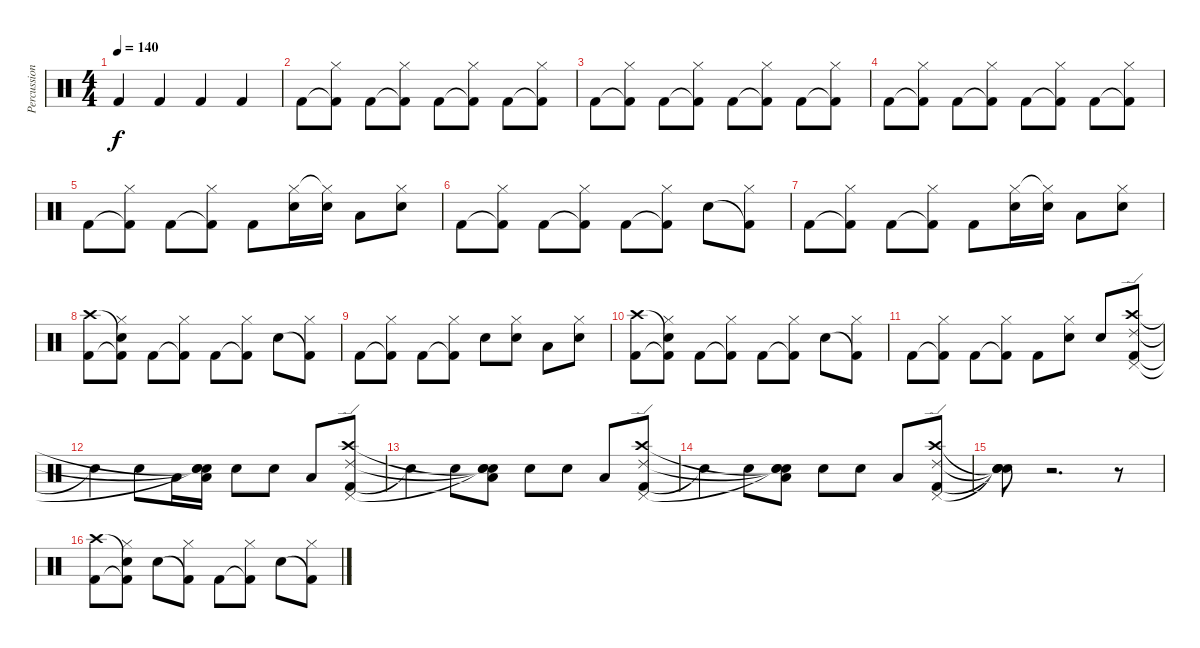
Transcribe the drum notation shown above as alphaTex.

\track ("Percussion" "Percussion") {instrument percussion}
\staff {score}
\articulation defaults
\ts (4 4)
\tempo 140
\clef neutral
\ks c "Kick (hit) 2".4{dy f} "Kick (hit) 2".4 "Kick (hit) 2".4 "Kick (hit) 2".4
|
"Kick (hit) 2".8 ("Kick (hit) 2"{t} "Hi-Hat (closed)").8 "Kick (hit) 2".8 ("Kick (hit) 2"{t} "Hi-Hat (closed)").8 "Kick (hit) 2".8 ("Kick (hit) 2"{t} "Hi-Hat (closed)").8 "Kick (hit) 2".8 ("Kick (hit) 2"{t} "Hi-Hat (closed)").8 |
"Kick (hit) 2".8 ("Kick (hit) 2"{t} "Hi-Hat (closed)").8 "Kick (hit) 2".8 ("Kick (hit) 2"{t} "Hi-Hat (closed)").8 "Kick (hit) 2".8 ("Kick (hit) 2"{t} "Hi-Hat (closed)").8 "Kick (hit) 2".8 ("Kick (hit) 2"{t} "Hi-Hat (closed)").8 |
"Kick (hit) 2".8 ("Kick (hit) 2"{t} "Hi-Hat (closed)").8 "Kick (hit) 2".8 ("Kick (hit) 2"{t} "Hi-Hat (closed)").8 "Kick (hit) 2".8 ("Kick (hit) 2"{t} "Hi-Hat (closed)").8 "Kick (hit) 2".8 ("Kick (hit) 2"{t} "Hi-Hat (closed)").8 |
"Kick (hit) 2".8 ("Kick (hit) 2"{t} "Hi-Hat (closed)").8 "Kick (hit) 2".8 ("Kick (hit) 2"{t} "Hi-Hat (closed)").8 "Kick (hit) 2".8 ("Snare (hit) 2" "Hi-Hat (closed)").16 ("Snare (hit) 2" "Hi-Hat (closed)"{t}).16 "Low Tom (hit)".8 ("Snare (hit) 2" "Hi-Hat (closed)").8 |
"Kick (hit) 2".8 ("Kick (hit) 2"{t} "Hi-Hat (closed)").8 "Kick (hit) 2".8 ("Kick (hit) 2"{t} "Hi-Hat (closed)").8 "Kick (hit) 2".8 ("Kick (hit) 2"{t} "Hi-Hat (closed)").8 "Snare (hit) 2".8 ("Kick (hit) 2"{t} "Hi-Hat (closed)").8 |
"Kick (hit) 2".8 ("Kick (hit) 2"{t} "Hi-Hat (closed)").8 "Kick (hit) 2".8 ("Kick (hit) 2"{t} "Hi-Hat (closed)").8 "Kick (hit) 2".8 ("Snare (hit) 2" "Hi-Hat (closed)").16 ("Snare (hit) 2" "Hi-Hat (closed)"{t}).16 "Low Tom (hit)".8 ("Snare (hit) 2" "Hi-Hat (closed)").8 |
("Kick (hit) 2" "Crash high (hit)").8 ("Kick (hit) 2"{t} "Snare (hit)"{t} "Hi-Hat (closed)").8 "Kick (hit) 2".8 ("Kick (hit) 2"{t} "Hi-Hat (closed)").8 "Kick (hit) 2".8 ("Kick (hit) 2"{t} "Hi-Hat (closed)").8 "Snare (hit) 2".8 ("Kick (hit) 2"{t} "Hi-Hat (closed)").8 |
"Kick (hit) 2".8 ("Kick (hit) 2"{t} "Hi-Hat (closed)").8 "Kick (hit) 2".8 ("Kick (hit) 2"{t} "Hi-Hat (closed)").8 "Snare (hit) 2".8 ("Snare (hit) 2" "Hi-Hat (closed)").8 "Low Tom (hit)".8 ("Snare (hit) 2" "Hi-Hat (closed)").8 |
("Kick (hit) 2" "Crash high (hit)").8 ("Kick (hit) 2"{t} "Snare (hit)"{t} "Hi-Hat (closed)").8 "Kick (hit) 2".8 ("Kick (hit) 2"{t} "Hi-Hat (closed)").8 "Kick (hit) 2".8 ("Kick (hit) 2"{t} "Hi-Hat (closed)").8 "Snare (hit) 2".8 ("Kick (hit) 2"{t} "Hi-Hat (closed)").8 |
"Kick (hit) 2".8 ("Kick (hit) 2"{t} "Hi-Hat (closed)").8 "Kick (hit) 2".8 ("Kick (hit) 2"{t} "Hi-Hat (closed)").8 "Kick (hit) 2".8 ("Snare (hit) 2" "Hi-Hat (closed)").8 "Snare (hit) 2".8 ("Kick (hit) 2" "Crash high (hit)" "Ride (edge) 2" "Pedal Hi-Hat (hit)").8 |
"Snare (hit)"{t}.4 "Snare (hit) 2".8 "Low Tom (hit)".16 ("Low Tom (hit)" "Snare (hit)"{t} "Snare (hit)"{t} "Snare (hit)"{t}).16 "Snare (hit) 2".8 "Snare (hit) 2".8 "Low Tom (hit)".8 ("Kick (hit) 2" "Crash high (hit)" "Ride (edge) 2" "Pedal Hi-Hat (hit)").8 |
"Snare (hit)"{t}.4 "Snare (hit) 2".8 ("Low Tom (hit)" "Snare (hit)"{t} "Snare (hit)"{t} "Snare (hit)"{t}).8 "Snare (hit) 2".8 "Snare (hit) 2".8 "Low Tom (hit)".8 ("Kick (hit) 2" "Crash high (hit)" "Ride (edge) 2" "Pedal Hi-Hat (hit)").8 |
"Snare (hit)"{t}.4 "Snare (hit) 2".8 ("Low Tom (hit)" "Snare (hit)"{t} "Snare (hit)"{t} "Snare (hit)"{t}).8 "Snare (hit) 2".8 "Snare (hit) 2".8 "Low Tom (hit)".8 ("Kick (hit) 2" "Crash high (hit)" "Ride (edge) 2" "Pedal Hi-Hat (hit)").8 |
("Snare (hit)"{t} "Snare (hit)"{t} "Snare (hit)"{t} "Snare (hit)"{t}).8 r.2{d} r.8 |
("Kick (hit) 2" "Crash high (hit)").8 ("Kick (hit) 2"{t} "Snare (hit)"{t} "Hi-Hat (closed)").8 "Snare (hit) 2".8 ("Kick (hit) 2"{t} "Hi-Hat (closed)").8 "Kick (hit) 2".8 ("Kick (hit) 2"{t} "Hi-Hat (closed)").8 "Snare (hit) 2".8 ("Kick (hit) 2"{t} "Hi-Hat (closed)").8
